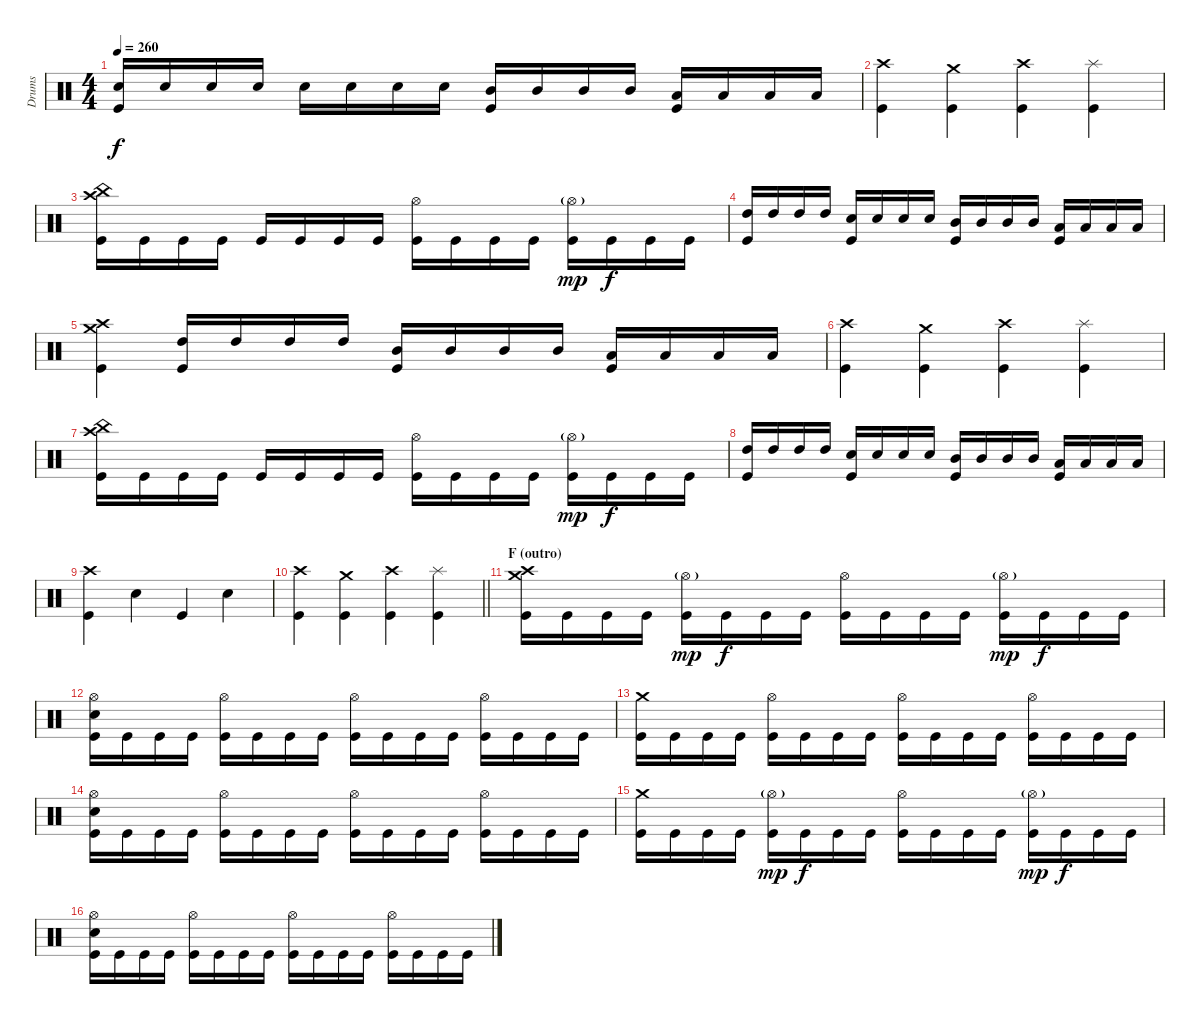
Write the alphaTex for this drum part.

\track ("Drums" "Drums") {instrument percussion}
\staff {score}
\articulation defaults
\ts (4 4)
\tempo 260
\clef neutral
\ks c
("Electric Snare (hit)" "Kick (hit)").16{dy f} "Electric Snare (hit)".16 "Electric Snare (hit)".16 "Electric Snare (hit)".16 "Electric Snare (hit)".16 "Electric Snare (hit)".16 "Electric Snare (hit)".16 "Electric Snare (hit)".16 ("Mid Tom (hit)" "Kick (hit)").16 "Mid Tom (hit)".16 "Mid Tom (hit)".16 "Mid Tom (hit)".16 ("Low Tom (hit)" "Kick (hit)").16 "Low Tom (hit)".16 "Low Tom (hit)".16 "Low Tom (hit)".16 |
("Crash high (hit)" "Kick (hit)").4 ("Crash medium (hit)" "Kick (hit)").4 ("Crash high (hit)" "Kick (hit)").4 ("Splash (hit)" "Kick (hit)").4 |
("Crash high (hit)" "China (hit)" "Kick (hit)").16 "Kick (hit)".16 "Kick (hit)".16 "Kick (hit)".16 "Kick (hit)".16 "Kick (hit)".16 "Kick (hit)".16 "Kick (hit)".16 ("Hi-Hat (open)" "Kick (hit)").16 "Kick (hit)".16 "Kick (hit)".16 "Kick (hit)".16 ("Hi-Hat (open)"{g} "Kick (hit)").16{dy mp} "Kick (hit)".16{dy f} "Kick (hit)".16 "Kick (hit)".16 |
("High Tom (hit)" "Kick (hit)").16 "High Tom (hit)".16 "High Tom (hit)".16 "High Tom (hit)".16 ("Electric Snare (hit)" "Kick (hit)").16 "Electric Snare (hit)".16 "Electric Snare (hit)".16 "Electric Snare (hit)".16 ("Mid Tom (hit)" "Kick (hit)").16 "Mid Tom (hit)".16 "Mid Tom (hit)".16 "Mid Tom (hit)".16 ("Low Tom (hit)" "Kick (hit)").16 "Low Tom (hit)".16 "Low Tom (hit)".16 "Low Tom (hit)".16 |
("Crash high (hit)" "Crash medium (hit)" "Kick (hit)").4 ("High Tom (hit)" "Kick (hit)").16 "High Tom (hit)".16 "High Tom (hit)".16 "High Tom (hit)".16 ("Mid Tom (hit)" "Kick (hit)").16 "Mid Tom (hit)".16 "Mid Tom (hit)".16 "Mid Tom (hit)".16 ("Low Tom (hit)" "Kick (hit)").16 "Low Tom (hit)".16 "Low Tom (hit)".16 "Low Tom (hit)".16 |
("Crash high (hit)" "Kick (hit)").4 ("Crash medium (hit)" "Kick (hit)").4 ("Crash high (hit)" "Kick (hit)").4 ("Splash (hit)" "Kick (hit)").4 |
("Crash high (hit)" "China (hit)" "Kick (hit)").16 "Kick (hit)".16 "Kick (hit)".16 "Kick (hit)".16 "Kick (hit)".16 "Kick (hit)".16 "Kick (hit)".16 "Kick (hit)".16 ("Hi-Hat (open)" "Kick (hit)").16 "Kick (hit)".16 "Kick (hit)".16 "Kick (hit)".16 ("Hi-Hat (open)"{g} "Kick (hit)").16{dy mp} "Kick (hit)".16{dy f} "Kick (hit)".16 "Kick (hit)".16 |
("High Tom (hit)" "Kick (hit)").16 "High Tom (hit)".16 "High Tom (hit)".16 "High Tom (hit)".16 ("Electric Snare (hit)" "Kick (hit)").16 "Electric Snare (hit)".16 "Electric Snare (hit)".16 "Electric Snare (hit)".16 ("Mid Tom (hit)" "Kick (hit)").16 "Mid Tom (hit)".16 "Mid Tom (hit)".16 "Mid Tom (hit)".16 ("Low Tom (hit)" "Kick (hit)").16 "Low Tom (hit)".16 "Low Tom (hit)".16 "Low Tom (hit)".16 |
("Crash high (hit)" "Kick (hit)").4 "Electric Snare (hit)".4 "Kick (hit)".4 "Electric Snare (hit)".4 |
\barLineRight lightlight
("Crash high (hit)" "Kick (hit)").4 ("Crash medium (hit)" "Kick (hit)").4 ("Crash high (hit)" "Kick (hit)").4 ("Splash (hit)" "Kick (hit)").4 |
\section ("" "F (outro)")
("Crash high (hit)" "Crash medium (hit)" "Kick (hit)").16 "Kick (hit)".16 "Kick (hit)".16 "Kick (hit)".16 ("Hi-Hat (open)"{g} "Kick (hit)").16{dy mp} "Kick (hit)".16{dy f} "Kick (hit)".16 "Kick (hit)".16 ("Hi-Hat (open)" "Kick (hit)").16 "Kick (hit)".16 "Kick (hit)".16 "Kick (hit)".16 ("Hi-Hat (open)"{g} "Kick (hit)").16{dy mp} "Kick (hit)".16{dy f} "Kick (hit)".16 "Kick (hit)".16 |
("Hi-Hat (open)" "Electric Snare (hit)" "Kick (hit)").16 "Kick (hit)".16 "Kick (hit)".16 "Kick (hit)".16 ("Hi-Hat (open)" "Kick (hit)").16 "Kick (hit)".16 "Kick (hit)".16 "Kick (hit)".16 ("Hi-Hat (open)" "Kick (hit)").16 "Kick (hit)".16 "Kick (hit)".16 "Kick (hit)".16 ("Hi-Hat (open)" "Kick (hit)").16 "Kick (hit)".16 "Kick (hit)".16 "Kick (hit)".16 |
("Crash medium (hit)" "Kick (hit)").16 "Kick (hit)".16 "Kick (hit)".16 "Kick (hit)".16 ("Hi-Hat (open)" "Kick (hit)").16 "Kick (hit)".16 "Kick (hit)".16 "Kick (hit)".16 ("Hi-Hat (open)" "Kick (hit)").16 "Kick (hit)".16 "Kick (hit)".16 "Kick (hit)".16 ("Hi-Hat (open)" "Kick (hit)").16 "Kick (hit)".16 "Kick (hit)".16 "Kick (hit)".16 |
("Hi-Hat (open)" "Electric Snare (hit)" "Kick (hit)").16 "Kick (hit)".16 "Kick (hit)".16 "Kick (hit)".16 ("Hi-Hat (open)" "Kick (hit)").16 "Kick (hit)".16 "Kick (hit)".16 "Kick (hit)".16 ("Hi-Hat (open)" "Kick (hit)").16 "Kick (hit)".16 "Kick (hit)".16 "Kick (hit)".16 ("Hi-Hat (open)" "Kick (hit)").16 "Kick (hit)".16 "Kick (hit)".16 "Kick (hit)".16 |
("Crash medium (hit)" "Kick (hit)").16 "Kick (hit)".16 "Kick (hit)".16 "Kick (hit)".16 ("Hi-Hat (open)"{g} "Kick (hit)").16{dy mp} "Kick (hit)".16{dy f} "Kick (hit)".16 "Kick (hit)".16 ("Hi-Hat (open)" "Kick (hit)").16 "Kick (hit)".16 "Kick (hit)".16 "Kick (hit)".16 ("Hi-Hat (open)"{g} "Kick (hit)").16{dy mp} "Kick (hit)".16{dy f} "Kick (hit)".16 "Kick (hit)".16 |
("Hi-Hat (open)" "Electric Snare (hit)" "Kick (hit)").16 "Kick (hit)".16 "Kick (hit)".16 "Kick (hit)".16 ("Hi-Hat (open)" "Kick (hit)").16 "Kick (hit)".16 "Kick (hit)".16 "Kick (hit)".16 ("Hi-Hat (open)" "Kick (hit)").16 "Kick (hit)".16 "Kick (hit)".16 "Kick (hit)".16 ("Hi-Hat (open)" "Kick (hit)").16 "Kick (hit)".16 "Kick (hit)".16 "Kick (hit)".16
